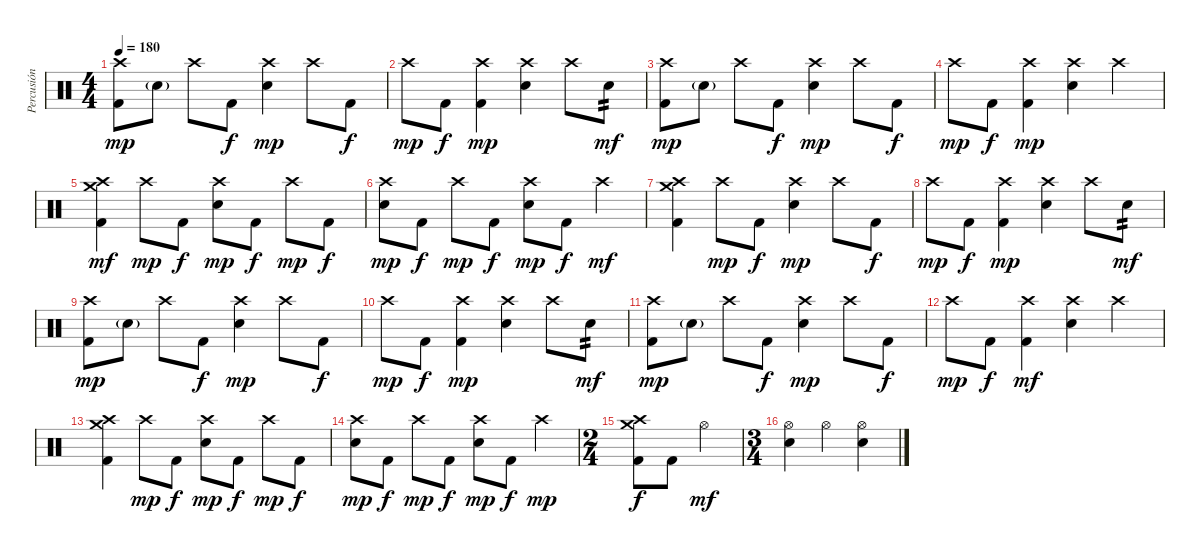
\track ("Percusión" "Percusión") {instrument percussion}
\staff {score}
\articulation defaults
\ts (4 4)
\tempo 180
\clef neutral
\ks c
("Crash high (hit)" "Kick (hit) 2").8{dy mp} "Snare (hit) 2"{g}.8 "Crash high (hit)".8 "Kick (hit) 2".8{dy f} ("Crash high (hit)" "Snare (hit) 2").4{dy mp} "Crash high (hit)".8 "Kick (hit) 2".8{dy f} |
"Crash high (hit)".8{dy mp} "Kick (hit) 2".8{dy f} ("Crash high (hit)" "Kick (hit) 2").4{dy mp} ("Crash high (hit)" "Snare (hit) 2").4 "Crash high (hit)".8 "Snare (hit) 2".8{tp 2 dy mf} |
("Crash high (hit)" "Kick (hit) 2").8{dy mp} "Snare (hit) 2"{g}.8 "Crash high (hit)".8 "Kick (hit) 2".8{dy f} ("Crash high (hit)" "Snare (hit) 2").4{dy mp} "Crash high (hit)".8 "Kick (hit) 2".8{dy f} |
"Crash high (hit)".8{dy mp} "Kick (hit) 2".8{dy f} ("Crash high (hit)" "Kick (hit) 2").4{dy mp} ("Crash high (hit)" "Snare (hit) 2").4 "Crash high (hit)".4 |
("Crash medium (hit)" "Crash high (hit)" "Kick (hit) 2").4{dy mf} "Crash high (hit)".8{dy mp} "Kick (hit) 2".8{dy f} ("Crash high (hit)" "Snare (hit) 2").8{dy mp} "Kick (hit) 2".8{dy f} "Crash high (hit)".8{dy mp} "Kick (hit) 2".8{dy f} |
("Crash high (hit)" "Snare (hit) 2").8{dy mp} "Kick (hit) 2".8{dy f} "Crash high (hit)".8{dy mp} "Kick (hit) 2".8{dy f} ("Crash high (hit)" "Snare (hit) 2").8{dy mp} "Kick (hit) 2".8{dy f} "Crash high (hit)".4{dy mf} |
("Crash medium (hit)" "Crash high (hit)" "Kick (hit) 2").4 "Crash high (hit)".8{dy mp} "Kick (hit) 2".8{dy f} ("Crash high (hit)" "Snare (hit) 2").4{dy mp} "Crash high (hit)".8 "Kick (hit) 2".8{dy f} |
"Crash high (hit)".8{dy mp} "Kick (hit) 2".8{dy f} ("Crash high (hit)" "Kick (hit) 2").4{dy mp} ("Crash high (hit)" "Snare (hit) 2").4 "Crash high (hit)".8 "Snare (hit) 2".8{tp 2 dy mf} |
("Crash high (hit)" "Kick (hit) 2").8{dy mp} "Snare (hit) 2"{g}.8 "Crash high (hit)".8 "Kick (hit) 2".8{dy f} ("Crash high (hit)" "Snare (hit) 2").4{dy mp} "Crash high (hit)".8 "Kick (hit) 2".8{dy f} |
"Crash high (hit)".8{dy mp} "Kick (hit) 2".8{dy f} ("Crash high (hit)" "Kick (hit) 2").4{dy mp} ("Crash high (hit)" "Snare (hit) 2").4 "Crash high (hit)".8 "Snare (hit) 2".8{tp 2 dy mf} |
("Crash high (hit)" "Kick (hit) 2").8{dy mp} "Snare (hit) 2"{g}.8 "Crash high (hit)".8 "Kick (hit) 2".8{dy f} ("Crash high (hit)" "Snare (hit) 2").4{dy mp} "Crash high (hit)".8 "Kick (hit) 2".8{dy f} |
"Crash high (hit)".8{dy mp} "Kick (hit) 2".8{dy f} ("Crash high (hit)" "Kick (hit) 2").4{dy mf} ("Crash high (hit)" "Snare (hit) 2").4 "Crash high (hit)".4 |
("Crash medium (hit)" "Crash high (hit)" "Kick (hit) 2").4 "Crash high (hit)".8{dy mp} "Kick (hit) 2".8{dy f} ("Crash high (hit)" "Snare (hit) 2").8{dy mp} "Kick (hit) 2".8{dy f} "Crash high (hit)".8{dy mp} "Kick (hit) 2".8{dy f} |
("Crash high (hit)" "Snare (hit) 2").8{dy mp} "Kick (hit) 2".8{dy f} "Crash high (hit)".8{dy mp} "Kick (hit) 2".8{dy f} ("Crash high (hit)" "Snare (hit) 2").8{dy mp} "Kick (hit) 2".8{dy f} "Crash high (hit)".4{dy mp} |
\ts (2 4)
("Crash medium (hit)" "Crash high (hit)" "Kick (hit) 2").8{dy f} "Kick (hit) 2".8 "Hi-Hat (open)".4{dy mf} |
\ts (3 4)
("Hi-Hat (open)" "Snare (hit) 2").4 "Hi-Hat (open)".4 ("Hi-Hat (open)" "Snare (hit) 2").4
